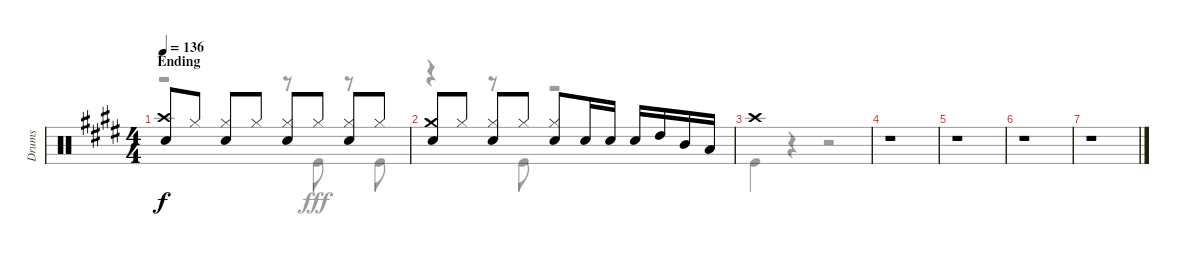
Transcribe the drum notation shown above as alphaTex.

\track ("Drums" "Drums") {instrument percussion}
\staff {score}
\articulation defaults
\voice
\ts (4 4)
\section ("" "Ending")
\tempo 136
\clef neutral
\ks e
("Crash high (hit)" "Snare (hit) 2").8{dy f} "Hi-Hat (closed)".8 ("Hi-Hat (closed)" "Snare (hit) 2").8 "Hi-Hat (closed)".8 ("Hi-Hat (closed)" "Snare (hit) 2").8 "Hi-Hat (closed)".8 ("Hi-Hat (closed)" "Snare (hit) 2").8 "Hi-Hat (closed)".8 |
("Crash medium (hit)" "Snare (hit) 2").8 "Hi-Hat (closed)".8 ("Hi-Hat (closed)" "Snare (hit) 2").8 "Hi-Hat (closed)".8 ("Hi-Hat (closed)" "Snare (hit) 2").8 "Snare (hit) 2".16 "Snare (hit) 2".16 "Snare (hit) 2".16 "High Tom (hit)".16 "Mid Tom (hit)".16 "Low Tom (hit)".16 |
"Crash high (hit)".1 |
r.1 |
r.1 |
r.1 |
r.1
\voice
\clef neutral
\ottava regular
\simile none
\ks e
r.2{dy fff} r.8 "Kick (hit)".8 r.8 "Kick (hit)".8 |
r.4 r.8 "Kick (hit)".8 r.2 |
"Kick (hit)".4 r.4 r.2 |
r.1 |
r.1 |
r.1 |
r.1
